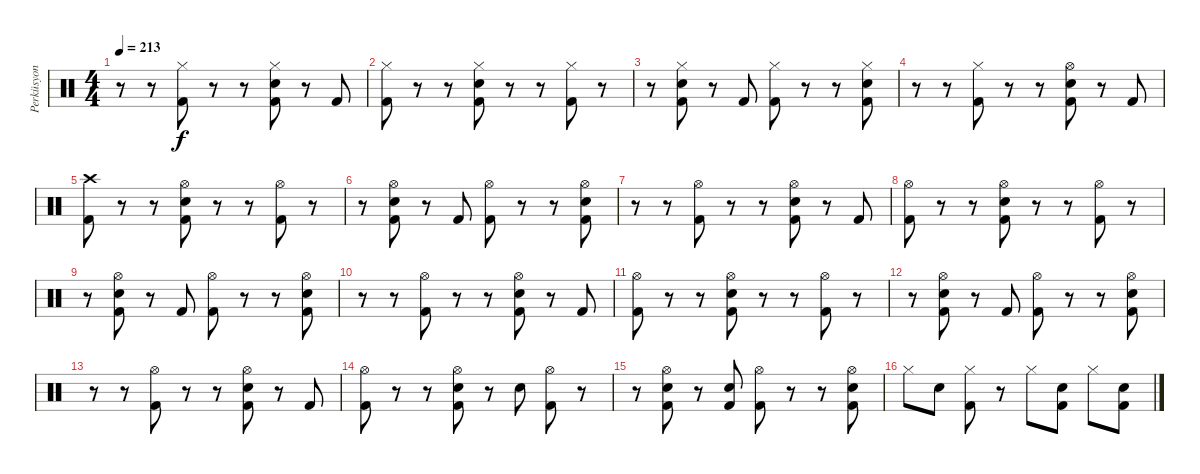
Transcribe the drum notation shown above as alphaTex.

\track ("Perküsyon" "Perküsyon") {instrument percussion}
\staff {score}
\articulation defaults
\ts (4 4)
\tempo 213
\clef neutral
\ks c
r.8{dy f} r.8 ("Hi-Hat (closed)" "Kick (hit) 2").8 r.8 r.8 ("Hi-Hat (closed)" "Electric Snare (hit)" "Kick (hit) 2").8 r.8 "Kick (hit) 2".8 |
("Hi-Hat (closed)" "Kick (hit) 2").8 r.8 r.8 ("Hi-Hat (closed)" "Electric Snare (hit)" "Kick (hit) 2").8 r.8 r.8 ("Hi-Hat (closed)" "Kick (hit) 2").8 r.8 |
r.8 ("Hi-Hat (closed)" "Electric Snare (hit)" "Kick (hit) 2").8 r.8 "Kick (hit) 2".8 ("Hi-Hat (closed)" "Kick (hit) 2").8 r.8 r.8 ("Hi-Hat (closed)" "Electric Snare (hit)" "Kick (hit) 2").8 |
r.8 r.8 ("Hi-Hat (closed)" "Kick (hit) 2").8 r.8 r.8 ("Hi-Hat (open)" "Electric Snare (hit)" "Kick (hit) 2").8 r.8 "Kick (hit) 2".8 |
("Crash high (hit)" "Kick (hit) 2").8 r.8 r.8 ("Hi-Hat (open)" "Electric Snare (hit)" "Kick (hit) 2").8 r.8 r.8 ("Hi-Hat (open)" "Kick (hit) 2").8 r.8 |
r.8 ("Hi-Hat (open)" "Electric Snare (hit)" "Kick (hit) 2").8 r.8 "Kick (hit) 2".8 ("Hi-Hat (open)" "Kick (hit) 2").8 r.8 r.8 ("Hi-Hat (open)" "Electric Snare (hit)" "Kick (hit) 2").8 |
r.8 r.8 ("Hi-Hat (open)" "Kick (hit) 2").8 r.8 r.8 ("Hi-Hat (open)" "Electric Snare (hit)" "Kick (hit) 2").8 r.8 "Kick (hit) 2".8 |
("Hi-Hat (open)" "Kick (hit) 2").8 r.8 r.8 ("Hi-Hat (open)" "Electric Snare (hit)" "Kick (hit) 2").8 r.8 r.8 ("Hi-Hat (open)" "Kick (hit) 2").8 r.8 |
r.8 ("Hi-Hat (open)" "Electric Snare (hit)" "Kick (hit) 2").8 r.8 "Kick (hit) 2".8 ("Hi-Hat (open)" "Kick (hit) 2").8 r.8 r.8 ("Hi-Hat (open)" "Electric Snare (hit)" "Kick (hit) 2").8 |
r.8 r.8 ("Hi-Hat (open)" "Kick (hit) 2").8 r.8 r.8 ("Hi-Hat (open)" "Electric Snare (hit)" "Kick (hit) 2").8 r.8 "Kick (hit) 2".8 |
("Hi-Hat (open)" "Kick (hit) 2").8 r.8 r.8 ("Hi-Hat (open)" "Electric Snare (hit)" "Kick (hit) 2").8 r.8 r.8 ("Hi-Hat (open)" "Kick (hit) 2").8 r.8 |
r.8 ("Hi-Hat (open)" "Electric Snare (hit)" "Kick (hit) 2").8 r.8 "Kick (hit) 2".8 ("Hi-Hat (open)" "Kick (hit) 2").8 r.8 r.8 ("Hi-Hat (open)" "Electric Snare (hit)" "Kick (hit) 2").8 |
r.8 r.8 ("Hi-Hat (open)" "Kick (hit) 2").8 r.8 r.8 ("Hi-Hat (open)" "Electric Snare (hit)" "Kick (hit) 2").8 r.8 "Kick (hit) 2".8 |
("Hi-Hat (open)" "Kick (hit) 2").8 r.8 r.8 ("Hi-Hat (open)" "Electric Snare (hit)" "Kick (hit) 2").8 r.8 "Electric Snare (hit)".8 ("Hi-Hat (open)" "Kick (hit) 2").8 r.8 |
r.8 ("Hi-Hat (open)" "Electric Snare (hit)" "Kick (hit) 2").8 r.8 ("Electric Snare (hit)" "Kick (hit) 2").8 ("Hi-Hat (open)" "Kick (hit) 2").8 r.8 r.8 ("Hi-Hat (open)" "Electric Snare (hit)" "Kick (hit) 2").8 |
"Hi-Hat (closed)".8 "Electric Snare (hit)".8 ("Hi-Hat (closed)" "Kick (hit) 2").8 r.8 "Hi-Hat (closed)".8 ("Electric Snare (hit)" "Kick (hit) 2").8 "Hi-Hat (closed)".8 ("Electric Snare (hit)" "Kick (hit) 2").8
